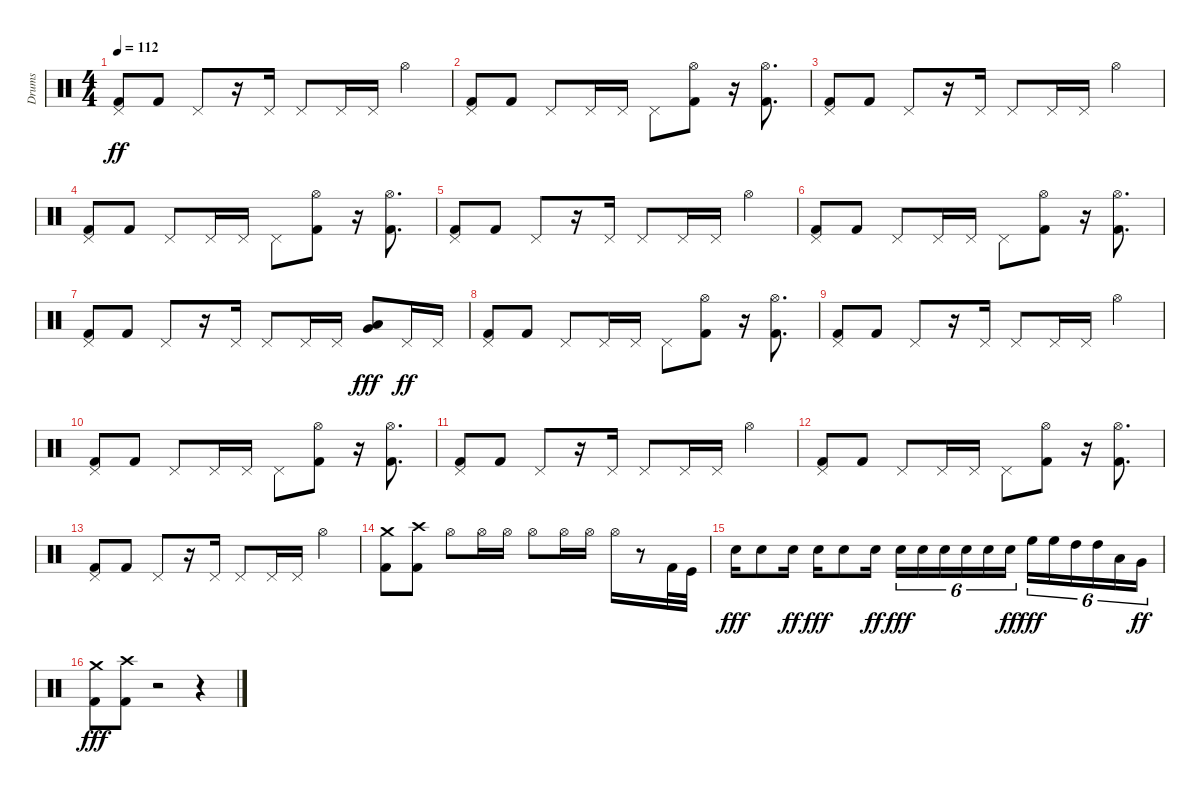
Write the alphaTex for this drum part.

\track ("Drums" "Drums") {instrument percussion}
\staff {score}
\articulation defaults
\ts (4 4)
\tempo 112
\clef neutral
\ks c
("Kick (hit) 2" "Pedal Hi-Hat (hit)").8{dy ff} "Kick (hit) 2".8 "Pedal Hi-Hat (hit)".8 r.16 "Pedal Hi-Hat (hit)".16 "Pedal Hi-Hat (hit)".8 "Pedal Hi-Hat (hit)".16 "Pedal Hi-Hat (hit)".16 "Hi-Hat (open)".4 |
("Kick (hit) 2" "Pedal Hi-Hat (hit)").8 "Kick (hit) 2".8 "Pedal Hi-Hat (hit)".8 "Pedal Hi-Hat (hit)".16 "Pedal Hi-Hat (hit)".16 "Pedal Hi-Hat (hit)".8 ("Kick (hit) 2" "Hi-Hat (open)").8 r.16 ("Kick (hit) 2" "Hi-Hat (open)").8{d} |
("Kick (hit) 2" "Pedal Hi-Hat (hit)").8 "Kick (hit) 2".8 "Pedal Hi-Hat (hit)".8 r.16 "Pedal Hi-Hat (hit)".16 "Pedal Hi-Hat (hit)".8 "Pedal Hi-Hat (hit)".16 "Pedal Hi-Hat (hit)".16 "Hi-Hat (open)".4 |
("Kick (hit) 2" "Pedal Hi-Hat (hit)").8 "Kick (hit) 2".8 "Pedal Hi-Hat (hit)".8 "Pedal Hi-Hat (hit)".16 "Pedal Hi-Hat (hit)".16 "Pedal Hi-Hat (hit)".8 ("Kick (hit) 2" "Hi-Hat (open)").8 r.16 ("Kick (hit) 2" "Hi-Hat (open)").8{d} |
("Kick (hit) 2" "Pedal Hi-Hat (hit)").8 "Kick (hit) 2".8 "Pedal Hi-Hat (hit)".8 r.16 "Pedal Hi-Hat (hit)".16 "Pedal Hi-Hat (hit)".8 "Pedal Hi-Hat (hit)".16 "Pedal Hi-Hat (hit)".16 "Hi-Hat (open)".4 |
("Kick (hit) 2" "Pedal Hi-Hat (hit)").8 "Kick (hit) 2".8 "Pedal Hi-Hat (hit)".8 "Pedal Hi-Hat (hit)".16 "Pedal Hi-Hat (hit)".16 "Pedal Hi-Hat (hit)".8 ("Kick (hit) 2" "Hi-Hat (open)").8 r.16 ("Kick (hit) 2" "Hi-Hat (open)").8{d} |
("Kick (hit) 2" "Pedal Hi-Hat (hit)").8 "Kick (hit) 2".8 "Pedal Hi-Hat (hit)".8 r.16 "Pedal Hi-Hat (hit)".16 "Pedal Hi-Hat (hit)".8 "Pedal Hi-Hat (hit)".16 "Pedal Hi-Hat (hit)".16 ("Low Floor Tom (hit)" "Very Low Tom (hit)").8{dy fff} "Pedal Hi-Hat (hit)".16{dy ff} "Pedal Hi-Hat (hit)".16 |
("Kick (hit) 2" "Pedal Hi-Hat (hit)").8 "Kick (hit) 2".8 "Pedal Hi-Hat (hit)".8 "Pedal Hi-Hat (hit)".16 "Pedal Hi-Hat (hit)".16 "Pedal Hi-Hat (hit)".8 ("Kick (hit) 2" "Hi-Hat (open)").8 r.16 ("Kick (hit) 2" "Hi-Hat (open)").8{d} |
("Kick (hit) 2" "Pedal Hi-Hat (hit)").8 "Kick (hit) 2".8 "Pedal Hi-Hat (hit)".8 r.16 "Pedal Hi-Hat (hit)".16 "Pedal Hi-Hat (hit)".8 "Pedal Hi-Hat (hit)".16 "Pedal Hi-Hat (hit)".16 "Hi-Hat (open)".4 |
("Kick (hit) 2" "Pedal Hi-Hat (hit)").8 "Kick (hit) 2".8 "Pedal Hi-Hat (hit)".8 "Pedal Hi-Hat (hit)".16 "Pedal Hi-Hat (hit)".16 "Pedal Hi-Hat (hit)".8 ("Kick (hit) 2" "Hi-Hat (open)").8 r.16 ("Kick (hit) 2" "Hi-Hat (open)").8{d} |
("Kick (hit) 2" "Pedal Hi-Hat (hit)").8 "Kick (hit) 2".8 "Pedal Hi-Hat (hit)".8 r.16 "Pedal Hi-Hat (hit)".16 "Pedal Hi-Hat (hit)".8 "Pedal Hi-Hat (hit)".16 "Pedal Hi-Hat (hit)".16 "Hi-Hat (open)".4 |
("Kick (hit) 2" "Pedal Hi-Hat (hit)").8 "Kick (hit) 2".8 "Pedal Hi-Hat (hit)".8 "Pedal Hi-Hat (hit)".16 "Pedal Hi-Hat (hit)".16 "Pedal Hi-Hat (hit)".8 ("Kick (hit) 2" "Hi-Hat (open)").8 r.16 ("Kick (hit) 2" "Hi-Hat (open)").8{d} |
("Kick (hit) 2" "Pedal Hi-Hat (hit)").8 "Kick (hit) 2".8 "Pedal Hi-Hat (hit)".8 r.16 "Pedal Hi-Hat (hit)".16 "Pedal Hi-Hat (hit)".8 "Pedal Hi-Hat (hit)".16 "Pedal Hi-Hat (hit)".16 "Hi-Hat (open)".4 |
("Kick (hit) 2" "Crash medium (hit)").8 ("Kick (hit) 2" "Crash high (hit)").8 "Hi-Hat (open)".8 "Hi-Hat (open)".16 "Hi-Hat (open)".16 "Hi-Hat (open)".8 "Hi-Hat (open)".16 "Hi-Hat (open)".16 "Hi-Hat (open)".16 r.8 "Kick (hit) 2".32 "Kick (hit)".32 |
"Snare (hit) 2".16{dy fff} "Snare (hit) 2".8 "Snare (hit) 2".16{dy ff} "Snare (hit) 2".16{dy fff} "Snare (hit) 2".8 "Snare (hit) 2".16{dy ff} "Electric Snare (hit)".16{tu (6 4) dy fff} "Snare (hit) 2".16{tu (6 4)} "Snare (hit) 2".16{tu (6 4)} "Electric Snare (hit)".16{tu (6 4)} "Snare (hit) 2".16{tu (6 4)} "Snare (hit) 2".16{tu (6 4) dy ff} "High Floor Tom (hit)".16{tu (6 4) dy fff} "High Floor Tom (hit)".16{tu (6 4)} "High Tom (hit)".16{tu (6 4)} "High Tom (hit)".16{tu (6 4)} "Low Tom (hit)".16{tu (6 4)} "Very Low Tom (hit)".16{tu (6 4) dy ff} |
("Kick (hit) 2" "Crash medium (hit)").8{dy fff} ("Kick (hit) 2" "Crash high (hit)").8 r.2 r.4
